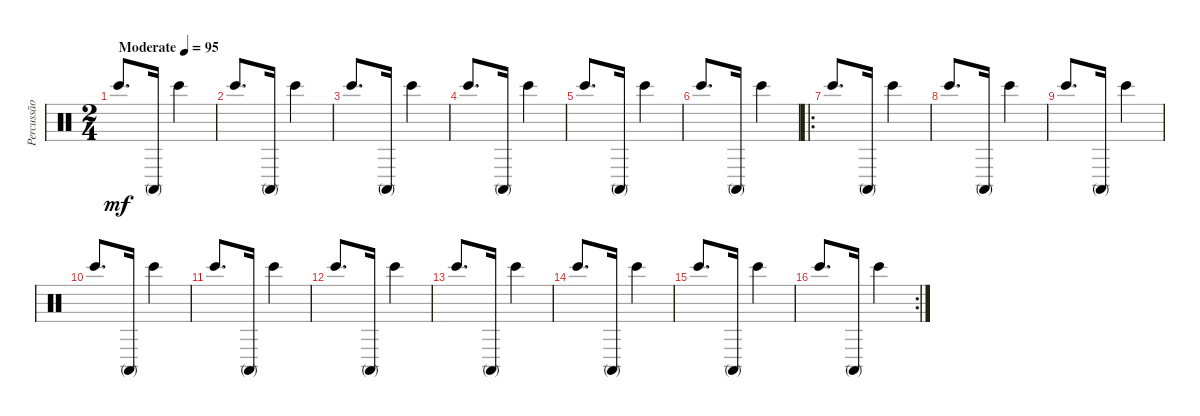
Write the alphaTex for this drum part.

\track ("Percussão" "Percussão") {instrument percussion}
\staff {score}
\articulation defaults
\ts (2 4)
\tempo (95 "Moderate")
\clef neutral
\ks c "Bongo High (hit)".8{d dy mf} "Conga high (mute)".16 "Bongo High (hit)".4
|
"Bongo High (hit)".8{d} "Conga high (mute)".16 "Bongo High (hit)".4 |
"Bongo High (hit)".8{d} "Conga high (mute)".16 "Bongo High (hit)".4 |
"Bongo High (hit)".8{d} "Conga high (mute)".16 "Bongo High (hit)".4 |
"Bongo High (hit)".8{d} "Conga high (mute)".16 "Bongo High (hit)".4 |
"Bongo High (hit)".8{d} "Conga high (mute)".16 "Bongo High (hit)".4 |
\ro "Bongo High (hit)".8{d} "Conga high (mute)".16 "Bongo High (hit)".4
|
"Bongo High (hit)".8{d} "Conga high (mute)".16 "Bongo High (hit)".4 |
"Bongo High (hit)".8{d} "Conga high (mute)".16 "Bongo High (hit)".4 |
"Bongo High (hit)".8{d} "Conga high (mute)".16 "Bongo High (hit)".4 |
"Bongo High (hit)".8{d} "Conga high (mute)".16 "Bongo High (hit)".4 |
"Bongo High (hit)".8{d} "Conga high (mute)".16 "Bongo High (hit)".4 |
"Bongo High (hit)".8{d} "Conga high (mute)".16 "Bongo High (hit)".4 |
"Bongo High (hit)".8{d} "Conga high (mute)".16 "Bongo High (hit)".4 |
"Bongo High (hit)".8{d} "Conga high (mute)".16 "Bongo High (hit)".4 |
\rc 2 "Bongo High (hit)".8{d} "Conga high (mute)".16 "Bongo High (hit)".4
